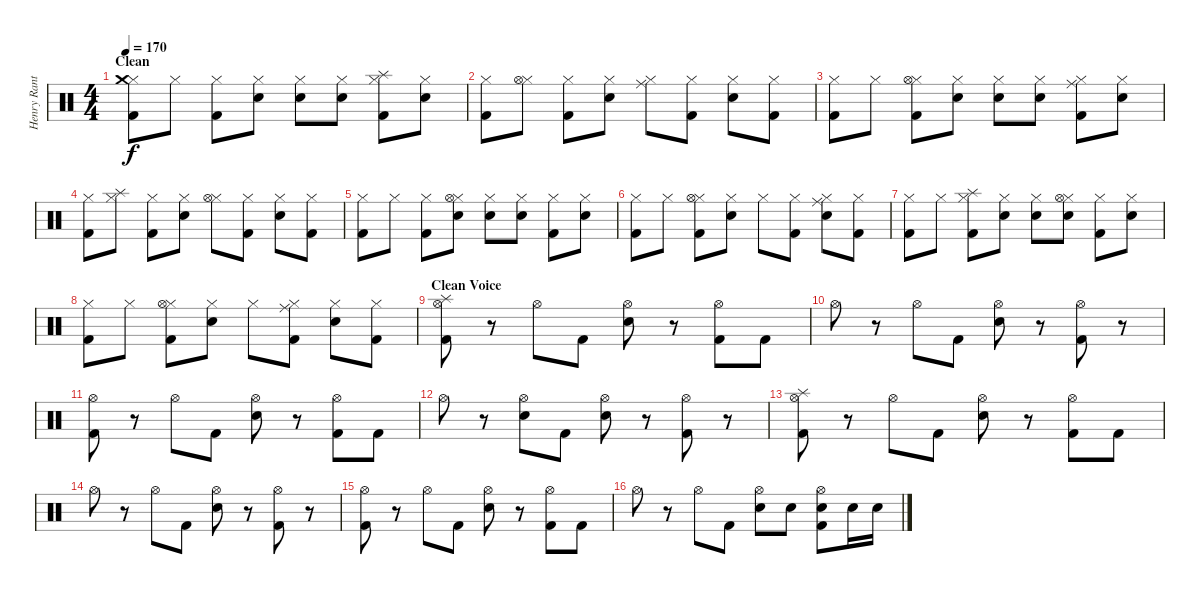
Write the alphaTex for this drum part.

\track ("Henry Ranta -Drums-" "Henry Rant") {instrument percussion}
\staff {score}
\articulation defaults
\ts (4 4)
\section ("" "Clean")
\tempo 170
\clef neutral
\ks c
("Hi-Hat (closed)" "Crash medium (hit)" "Kick (hit) 2").8{dy f} "Hi-Hat (closed)".8 ("Hi-Hat (closed)" "Kick (hit) 2").8 ("Hi-Hat (closed)" "Snare (hit) 2").8 ("Hi-Hat (closed)" "Snare (hit) 2").8 ("Hi-Hat (closed)" "Snare (hit) 2").8 ("Hi-Hat (closed)" "Splash (hit)" "Kick (hit) 2").8 ("Hi-Hat (closed)" "Snare (hit) 2").8 |
("Hi-Hat (closed)" "Kick (hit) 2").8 ("Hi-Hat (closed)" "Hi-Hat (open)").8 ("Hi-Hat (closed)" "Kick (hit) 2").8 ("Hi-Hat (closed)" "Snare (hit) 2").8 ("Hi-Hat (closed)" "Ride (middle)").8 ("Hi-Hat (closed)" "Kick (hit) 2").8 ("Hi-Hat (closed)" "Snare (hit) 2").8 ("Hi-Hat (closed)" "Kick (hit) 2").8 |
("Hi-Hat (closed)" "Kick (hit) 2").8 "Hi-Hat (closed)".8 ("Hi-Hat (closed)" "Hi-Hat (open)" "Kick (hit) 2").8 ("Hi-Hat (closed)" "Snare (hit) 2").8 ("Hi-Hat (closed)" "Snare (hit) 2").8 ("Hi-Hat (closed)" "Snare (hit) 2").8 ("Hi-Hat (closed)" "Ride (middle)" "Kick (hit) 2").8 ("Hi-Hat (closed)" "Snare (hit) 2").8 |
("Hi-Hat (closed)" "Kick (hit) 2").8 ("Hi-Hat (closed)" "Splash (hit)").8 ("Hi-Hat (closed)" "Kick (hit) 2").8 ("Hi-Hat (closed)" "Snare (hit) 2").8 ("Hi-Hat (closed)" "Hi-Hat (open)").8 ("Hi-Hat (closed)" "Kick (hit) 2").8 ("Hi-Hat (closed)" "Snare (hit) 2").8 ("Hi-Hat (closed)" "Kick (hit) 2").8 |
("Hi-Hat (closed)" "Kick (hit) 2").8 "Hi-Hat (closed)".8 ("Hi-Hat (closed)" "Kick (hit) 2").8 ("Hi-Hat (closed)" "Hi-Hat (open)" "Snare (hit) 2").8 ("Hi-Hat (closed)" "Snare (hit) 2").8 ("Hi-Hat (closed)" "Snare (hit) 2").8 ("Hi-Hat (closed)" "Kick (hit) 2").8 ("Hi-Hat (closed)" "Snare (hit) 2").8 |
("Hi-Hat (closed)" "Kick (hit) 2").8 "Hi-Hat (closed)".8 ("Hi-Hat (closed)" "Hi-Hat (open)" "Kick (hit) 2").8 ("Hi-Hat (closed)" "Snare (hit) 2").8 "Hi-Hat (closed)".8 ("Hi-Hat (closed)" "Kick (hit) 2").8 ("Hi-Hat (closed)" "Ride (middle)" "Snare (hit) 2").8 ("Hi-Hat (closed)" "Kick (hit) 2").8 |
("Hi-Hat (closed)" "Kick (hit) 2").8 "Hi-Hat (closed)".8 ("Hi-Hat (closed)" "Splash (hit)" "Kick (hit) 2").8 ("Hi-Hat (closed)" "Snare (hit) 2").8 ("Hi-Hat (closed)" "Snare (hit) 2").8 ("Hi-Hat (closed)" "Hi-Hat (open)" "Snare (hit) 2").8 ("Hi-Hat (closed)" "Kick (hit) 2").8 ("Hi-Hat (closed)" "Snare (hit) 2").8 |
("Hi-Hat (closed)" "Kick (hit) 2").8 "Hi-Hat (closed)".8 ("Hi-Hat (closed)" "Hi-Hat (open)" "Kick (hit) 2").8 ("Hi-Hat (closed)" "Snare (hit) 2").8 "Hi-Hat (closed)".8 ("Hi-Hat (closed)" "Ride (middle)" "Kick (hit) 2").8 ("Hi-Hat (closed)" "Snare (hit) 2").8 ("Hi-Hat (closed)" "Kick (hit) 2").8 |
\section ("" "Clean Voice")
("Hi-Hat (open)" "Splash (hit)" "Kick (hit) 2").8 r.8 "Hi-Hat (open)".8 "Kick (hit) 2".8 ("Hi-Hat (open)" "Snare (hit) 2").8 r.8 ("Hi-Hat (open)" "Kick (hit) 2").8 "Kick (hit) 2".8 |
"Hi-Hat (open)".8 r.8 "Hi-Hat (open)".8 "Kick (hit) 2".8 ("Hi-Hat (open)" "Snare (hit) 2").8 r.8 ("Hi-Hat (open)" "Kick (hit) 2").8 r.8 |
("Hi-Hat (open)" "Kick (hit) 2").8 r.8 "Hi-Hat (open)".8 "Kick (hit) 2".8 ("Hi-Hat (open)" "Snare (hit) 2").8 r.8 ("Hi-Hat (open)" "Kick (hit) 2").8 "Kick (hit) 2".8 |
"Hi-Hat (open)".8 r.8 ("Hi-Hat (open)" "Snare (hit) 2").8 "Kick (hit) 2".8 ("Hi-Hat (open)" "Snare (hit) 2").8 r.8 ("Hi-Hat (open)" "Kick (hit) 2").8 r.8 |
("Hi-Hat (open)" "Splash (hit)" "Kick (hit) 2").8 r.8 "Hi-Hat (open)".8 "Kick (hit) 2".8 ("Hi-Hat (open)" "Snare (hit) 2").8 r.8 ("Hi-Hat (open)" "Kick (hit) 2").8 "Kick (hit) 2".8 |
"Hi-Hat (open)".8 r.8 "Hi-Hat (open)".8 "Kick (hit) 2".8 ("Hi-Hat (open)" "Snare (hit) 2").8 r.8 ("Hi-Hat (open)" "Kick (hit) 2").8 r.8 |
("Hi-Hat (open)" "Kick (hit) 2").8 r.8 "Hi-Hat (open)".8 "Kick (hit) 2".8 ("Hi-Hat (open)" "Snare (hit) 2").8 r.8 ("Hi-Hat (open)" "Kick (hit) 2").8 "Kick (hit) 2".8 |
"Hi-Hat (open)".8 r.8 "Hi-Hat (open)".8 "Kick (hit) 2".8 ("Hi-Hat (open)" "Snare (hit) 2").8 "Snare (hit) 2".8 ("Hi-Hat (open)" "Snare (hit) 2" "Kick (hit) 2").8 "Snare (hit) 2".16 "Snare (hit) 2".16
